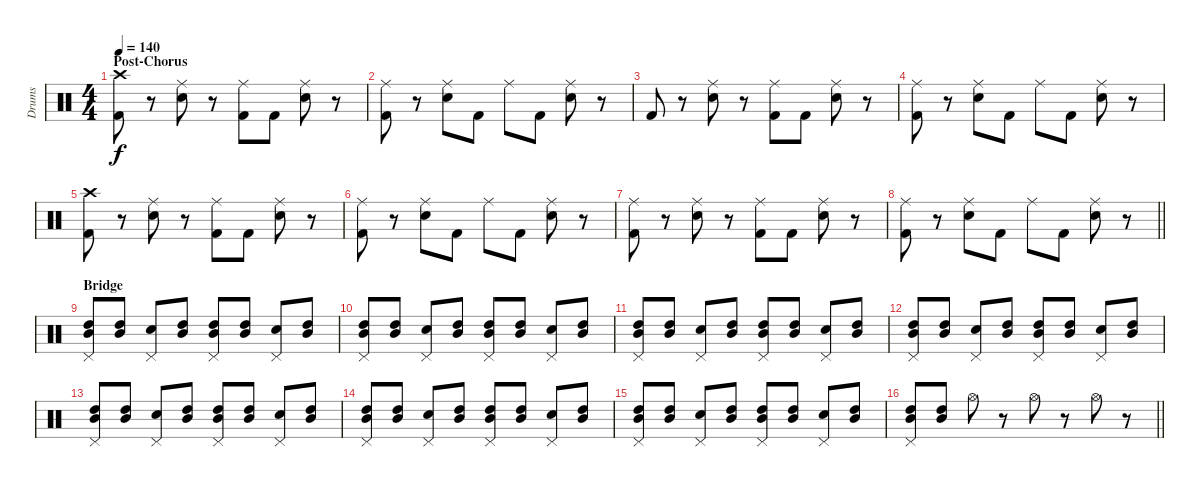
\track ("Drums" "Drums") {instrument percussion}
\staff {score}
\articulation defaults
\ts (4 4)
\section ("" "Post-Chorus")
\tempo 140
\clef neutral
\ks c
("Crash high (hit)" "Kick (hit) 2").8{dy f} r.8 ("Ride (middle)" "Snare (hit) 2").8 r.8 ("Ride (middle)" "Kick (hit) 2").8 "Kick (hit) 2".8 ("Ride (middle)" "Snare (hit) 2").8 r.8 |
("Ride (middle)" "Kick (hit) 2").8 r.8 ("Ride (middle)" "Snare (hit) 2").8 "Kick (hit) 2".8 "Ride (middle)".8 "Kick (hit) 2".8 ("Ride (middle)" "Snare (hit) 2").8 r.8 |
"Kick (hit) 2".8 r.8 ("Ride (middle)" "Snare (hit) 2").8 r.8 ("Ride (middle)" "Kick (hit) 2").8 "Kick (hit) 2".8 ("Ride (middle)" "Snare (hit) 2").8 r.8 |
("Ride (middle)" "Kick (hit) 2").8 r.8 ("Ride (middle)" "Snare (hit) 2").8 "Kick (hit) 2".8 "Ride (middle)".8 "Kick (hit) 2".8 ("Ride (middle)" "Snare (hit) 2").8 r.8 |
("Crash high (hit)" "Kick (hit) 2").8 r.8 ("Ride (middle)" "Snare (hit) 2").8 r.8 ("Ride (middle)" "Kick (hit) 2").8 "Kick (hit) 2".8 ("Ride (middle)" "Snare (hit) 2").8 r.8 |
("Ride (middle)" "Kick (hit) 2").8 r.8 ("Ride (middle)" "Snare (hit) 2").8 "Kick (hit) 2".8 "Ride (middle)".8 "Kick (hit) 2".8 ("Ride (middle)" "Snare (hit) 2").8 r.8 |
("Ride (middle)" "Kick (hit) 2").8 r.8 ("Ride (middle)" "Snare (hit) 2").8 r.8 ("Ride (middle)" "Kick (hit) 2").8 "Kick (hit) 2".8 ("Ride (middle)" "Snare (hit) 2").8 r.8 |
\barLineRight lightlight
("Ride (middle)" "Kick (hit) 2").8 r.8 ("Ride (middle)" "Snare (hit) 2").8 "Kick (hit) 2".8 "Ride (middle)".8 "Kick (hit) 2".8 ("Ride (middle)" "Snare (hit) 2").8 r.8 |
\section ("" "Bridge")
("Pedal Hi-Hat (hit)" "High Tom (hit)" "Mid Tom (hit)").8 ("High Tom (hit)" "Mid Tom (hit)").8 ("Pedal Hi-Hat (hit)" "Snare (hit) 2").8 ("High Tom (hit)" "Mid Tom (hit)").8 ("Pedal Hi-Hat (hit)" "High Tom (hit)" "Mid Tom (hit)").8 ("High Tom (hit)" "Mid Tom (hit)").8 ("Pedal Hi-Hat (hit)" "Snare (hit) 2").8 ("High Tom (hit)" "Mid Tom (hit)").8 |
("Pedal Hi-Hat (hit)" "High Tom (hit)" "Mid Tom (hit)").8 ("High Tom (hit)" "Mid Tom (hit)").8 ("Pedal Hi-Hat (hit)" "Snare (hit) 2").8 ("High Tom (hit)" "Mid Tom (hit)").8 ("Pedal Hi-Hat (hit)" "High Tom (hit)" "Mid Tom (hit)").8 ("High Tom (hit)" "Mid Tom (hit)").8 ("Pedal Hi-Hat (hit)" "Snare (hit) 2").8 ("High Tom (hit)" "Mid Tom (hit)").8 |
("Pedal Hi-Hat (hit)" "High Tom (hit)" "Mid Tom (hit)").8 ("High Tom (hit)" "Mid Tom (hit)").8 ("Pedal Hi-Hat (hit)" "Snare (hit) 2").8 ("High Tom (hit)" "Mid Tom (hit)").8 ("Pedal Hi-Hat (hit)" "High Tom (hit)" "Mid Tom (hit)").8 ("High Tom (hit)" "Mid Tom (hit)").8 ("Pedal Hi-Hat (hit)" "Snare (hit) 2").8 ("High Tom (hit)" "Mid Tom (hit)").8 |
("Pedal Hi-Hat (hit)" "High Tom (hit)" "Mid Tom (hit)").8 ("High Tom (hit)" "Mid Tom (hit)").8 ("Pedal Hi-Hat (hit)" "Snare (hit) 2").8 ("High Tom (hit)" "Mid Tom (hit)").8 ("Pedal Hi-Hat (hit)" "High Tom (hit)" "Mid Tom (hit)").8 ("High Tom (hit)" "Mid Tom (hit)").8 ("Pedal Hi-Hat (hit)" "Snare (hit) 2").8 ("High Tom (hit)" "Mid Tom (hit)").8 |
("Pedal Hi-Hat (hit)" "High Tom (hit)" "Mid Tom (hit)").8 ("High Tom (hit)" "Mid Tom (hit)").8 ("Pedal Hi-Hat (hit)" "Snare (hit) 2").8 ("High Tom (hit)" "Mid Tom (hit)").8 ("Pedal Hi-Hat (hit)" "High Tom (hit)" "Mid Tom (hit)").8 ("High Tom (hit)" "Mid Tom (hit)").8 ("Pedal Hi-Hat (hit)" "Snare (hit) 2").8 ("High Tom (hit)" "Mid Tom (hit)").8 |
("Pedal Hi-Hat (hit)" "High Tom (hit)" "Mid Tom (hit)").8 ("High Tom (hit)" "Mid Tom (hit)").8 ("Pedal Hi-Hat (hit)" "Snare (hit) 2").8 ("High Tom (hit)" "Mid Tom (hit)").8 ("Pedal Hi-Hat (hit)" "High Tom (hit)" "Mid Tom (hit)").8 ("High Tom (hit)" "Mid Tom (hit)").8 ("Pedal Hi-Hat (hit)" "Snare (hit) 2").8 ("High Tom (hit)" "Mid Tom (hit)").8 |
("Pedal Hi-Hat (hit)" "High Tom (hit)" "Mid Tom (hit)").8 ("High Tom (hit)" "Mid Tom (hit)").8 ("Pedal Hi-Hat (hit)" "Snare (hit) 2").8 ("High Tom (hit)" "Mid Tom (hit)").8 ("Pedal Hi-Hat (hit)" "High Tom (hit)" "Mid Tom (hit)").8 ("High Tom (hit)" "Mid Tom (hit)").8 ("Pedal Hi-Hat (hit)" "Snare (hit) 2").8 ("High Tom (hit)" "Mid Tom (hit)").8 |
\barLineRight lightlight
("Pedal Hi-Hat (hit)" "High Tom (hit)" "Mid Tom (hit)").8 ("High Tom (hit)" "Mid Tom (hit)").8 "Hi-Hat (open)".8 r.8 "Hi-Hat (open)".8 r.8 "Hi-Hat (open)".8 r.8
